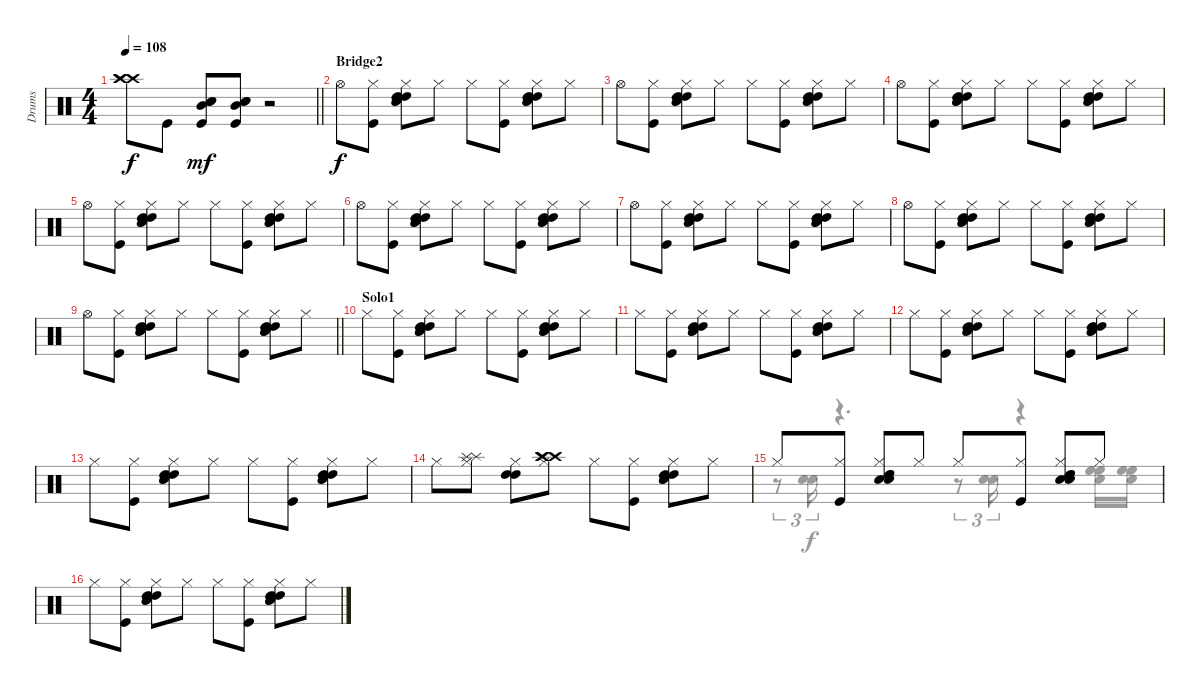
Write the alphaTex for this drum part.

\track ("Drums" "Drums") {instrument percussion}
\staff {score}
\articulation defaults
\voice
\ts (4 4)
\tempo 108
\clef neutral
\barLineRight lightlight
\ks c
("Crash high (hit)" "Crash high (hit)" "Crash high (hit)").8{dy f} "Kick (hit)".8 ("Snare (hit) 2" "Snare (hit) 2" "Mid Tom (hit)" "Kick (hit)").8{dy mf} ("Snare (hit) 2" "Snare (hit) 2" "Mid Tom (hit)" "Kick (hit)").8 r.2 |
\section ("" "Bridge2")
"Hi-Hat (open)".8{dy f} ("Kick (hit)" "Hi-Hat (closed)").8 ("Snare (hit) 2" "Snare (hit) 2" "High Tom (hit)" "High Tom (hit)" "Hi-Hat (closed)").8 "Hi-Hat (closed)".8 "Hi-Hat (closed)".8 ("Kick (hit)" "Hi-Hat (closed)").8 ("Snare (hit) 2" "Snare (hit) 2" "High Tom (hit)" "High Tom (hit)" "Hi-Hat (closed)").8 "Hi-Hat (closed)".8 |
"Hi-Hat (open)".8 ("Kick (hit)" "Hi-Hat (closed)").8 ("Snare (hit) 2" "Snare (hit) 2" "High Tom (hit)" "High Tom (hit)" "Hi-Hat (closed)").8 "Hi-Hat (closed)".8 "Hi-Hat (closed)".8 ("Kick (hit)" "Hi-Hat (closed)").8 ("Snare (hit) 2" "Snare (hit) 2" "High Tom (hit)" "High Tom (hit)" "Hi-Hat (closed)").8 "Hi-Hat (closed)".8 |
"Hi-Hat (open)".8 ("Kick (hit)" "Hi-Hat (closed)").8 ("Snare (hit) 2" "Snare (hit) 2" "High Tom (hit)" "High Tom (hit)" "Hi-Hat (closed)").8 "Hi-Hat (closed)".8 "Hi-Hat (closed)".8 ("Kick (hit)" "Hi-Hat (closed)").8 ("Snare (hit) 2" "Snare (hit) 2" "High Tom (hit)" "High Tom (hit)" "Hi-Hat (closed)").8 "Hi-Hat (closed)".8 |
"Hi-Hat (open)".8 ("Kick (hit)" "Hi-Hat (closed)").8 ("Snare (hit) 2" "Snare (hit) 2" "High Tom (hit)" "High Tom (hit)" "Hi-Hat (closed)").8 "Hi-Hat (closed)".8 "Hi-Hat (closed)".8 ("Kick (hit)" "Hi-Hat (closed)").8 ("Snare (hit) 2" "Snare (hit) 2" "High Tom (hit)" "High Tom (hit)" "Hi-Hat (closed)").8 "Hi-Hat (closed)".8 |
"Hi-Hat (open)".8 ("Kick (hit)" "Hi-Hat (closed)").8 ("Snare (hit) 2" "Snare (hit) 2" "High Tom (hit)" "High Tom (hit)" "Hi-Hat (closed)").8 "Hi-Hat (closed)".8 "Hi-Hat (closed)".8 ("Kick (hit)" "Hi-Hat (closed)").8 ("Snare (hit) 2" "Snare (hit) 2" "High Tom (hit)" "High Tom (hit)" "Hi-Hat (closed)").8 "Hi-Hat (closed)".8 |
"Hi-Hat (open)".8 ("Kick (hit)" "Hi-Hat (closed)").8 ("Snare (hit) 2" "Snare (hit) 2" "High Tom (hit)" "High Tom (hit)" "Hi-Hat (closed)").8 "Hi-Hat (closed)".8 "Hi-Hat (closed)".8 ("Kick (hit)" "Hi-Hat (closed)").8 ("Snare (hit) 2" "Snare (hit) 2" "High Tom (hit)" "High Tom (hit)" "Hi-Hat (closed)").8 "Hi-Hat (closed)".8 |
"Hi-Hat (open)".8 ("Kick (hit)" "Hi-Hat (closed)").8 ("Snare (hit) 2" "Snare (hit) 2" "High Tom (hit)" "High Tom (hit)" "Hi-Hat (closed)").8 "Hi-Hat (closed)".8 "Hi-Hat (closed)".8 ("Kick (hit)" "Hi-Hat (closed)").8 ("Snare (hit) 2" "Snare (hit) 2" "High Tom (hit)" "High Tom (hit)" "Hi-Hat (closed)").8 "Hi-Hat (closed)".8 |
\barLineRight lightlight "Hi-Hat (open)".8
("Kick (hit)" "Hi-Hat (closed)").8 ("Snare (hit) 2" "Snare (hit) 2" "High Tom (hit)" "High Tom (hit)" "Hi-Hat (closed)").8 "Hi-Hat (closed)".8 "Hi-Hat (closed)".8 ("Kick (hit)" "Hi-Hat (closed)").8 ("Snare (hit) 2" "Snare (hit) 2" "High Tom (hit)" "High Tom (hit)" "Hi-Hat (closed)").8 "Hi-Hat (closed)".8 |
\section ("" "Solo1")
"Hi-Hat (closed)".8 ("Kick (hit)" "Hi-Hat (closed)").8 ("Snare (hit) 2" "Snare (hit) 2" "High Tom (hit)" "High Tom (hit)" "Hi-Hat (closed)").8 "Hi-Hat (closed)".8 "Hi-Hat (closed)".8 ("Kick (hit)" "Hi-Hat (closed)").8 ("Snare (hit) 2" "Snare (hit) 2" "High Tom (hit)" "High Tom (hit)" "Hi-Hat (closed)").8 "Hi-Hat (closed)".8 |
"Hi-Hat (closed)".8 ("Kick (hit)" "Hi-Hat (closed)").8 ("Snare (hit) 2" "Snare (hit) 2" "High Tom (hit)" "High Tom (hit)" "Hi-Hat (closed)").8 "Hi-Hat (closed)".8 "Hi-Hat (closed)".8 ("Kick (hit)" "Hi-Hat (closed)").8 ("Snare (hit) 2" "Snare (hit) 2" "High Tom (hit)" "High Tom (hit)" "Hi-Hat (closed)").8 "Hi-Hat (closed)".8 |
"Hi-Hat (closed)".8 ("Kick (hit)" "Hi-Hat (closed)").8 ("Snare (hit) 2" "Snare (hit) 2" "High Tom (hit)" "High Tom (hit)" "Hi-Hat (closed)").8 "Hi-Hat (closed)".8 "Hi-Hat (closed)".8 ("Kick (hit)" "Hi-Hat (closed)").8 ("Snare (hit) 2" "Snare (hit) 2" "High Tom (hit)" "High Tom (hit)" "Hi-Hat (closed)").8 "Hi-Hat (closed)".8 |
"Hi-Hat (closed)".8 ("Kick (hit)" "Hi-Hat (closed)").8 ("Snare (hit) 2" "Snare (hit) 2" "High Tom (hit)" "High Tom (hit)" "Hi-Hat (closed)").8 "Hi-Hat (closed)".8 "Hi-Hat (closed)".8 ("Kick (hit)" "Hi-Hat (closed)").8 ("Snare (hit) 2" "Snare (hit) 2" "High Tom (hit)" "High Tom (hit)" "Hi-Hat (closed)").8 "Hi-Hat (closed)".8 |
"Hi-Hat (closed)".8 ("Splash (hit)" "Splash (hit)" "Hi-Hat (closed)").8 ("High Tom (hit)" "High Tom (hit)" "Hi-Hat (closed)").8 ("Crash high (hit)" "Crash high (hit)" "Crash high (hit)" "Hi-Hat (closed)").8 "Hi-Hat (closed)".8 ("Kick (hit)" "Hi-Hat (closed)").8 ("Snare (hit) 2" "Snare (hit) 2" "High Tom (hit)" "High Tom (hit)" "Hi-Hat (closed)").8 "Hi-Hat (closed)".8 |
"Hi-Hat (closed)".8 ("Kick (hit)" "Hi-Hat (closed)").8 ("Snare (hit) 2" "Snare (hit) 2" "High Tom (hit)" "High Tom (hit)" "Hi-Hat (closed)").8 "Hi-Hat (closed)".8 "Hi-Hat (closed)".8 ("Kick (hit)" "Hi-Hat (closed)").8 ("Snare (hit) 2" "Snare (hit) 2" "High Tom (hit)" "High Tom (hit)" "Hi-Hat (closed)").8 "Hi-Hat (closed)".8 |
"Hi-Hat (closed)".8 ("Kick (hit)" "Hi-Hat (closed)").8 ("Snare (hit) 2" "Snare (hit) 2" "High Tom (hit)" "High Tom (hit)" "Hi-Hat (closed)").8 "Hi-Hat (closed)".8 "Hi-Hat (closed)".8 ("Kick (hit)" "Hi-Hat (closed)").8 ("Snare (hit) 2" "Snare (hit) 2" "High Tom (hit)" "High Tom (hit)" "Hi-Hat (closed)").8 "Hi-Hat (closed)".8
\voice
\clef neutral
\ottava regular
\simile none
\barLineRight lightlight
\ks c
|
|
|
|
|
|
|
|
\barLineRight lightlight
|
|
|
|
|
|
r.8{tu (3 2)} ("Snare (hit) 2" "Snare (hit) 2").16{tu (3 2)} r.4{d} r.8{tu (3 2)} ("Snare (hit) 2" "Snare (hit) 2").16{tu (3 2)} r.4 ("Snare (hit) 2" "High Floor Tom (hit)" "High Floor Tom (hit)").16 ("Snare (hit) 2" "High Floor Tom (hit)" "High Floor Tom (hit)").16 |
